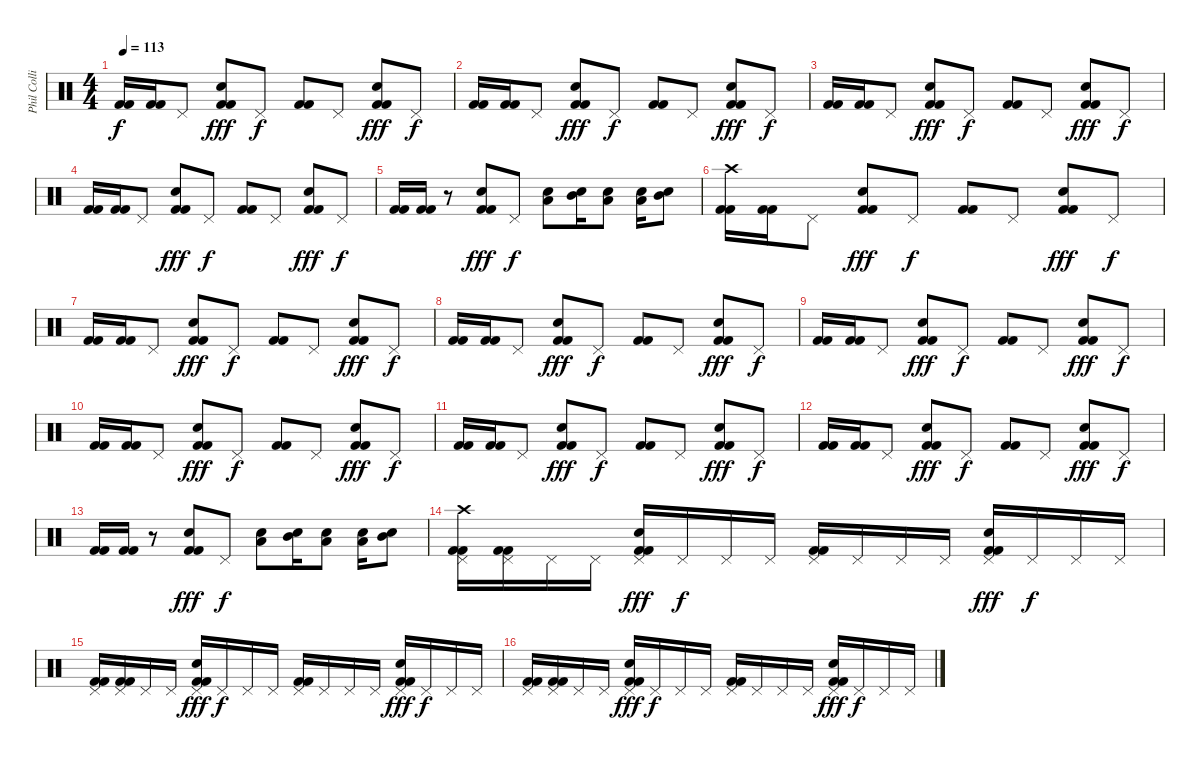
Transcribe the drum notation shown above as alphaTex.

\track ("Phil Collins" "Phil Colli") {instrument percussion}
\staff {score}
\articulation defaults
\ts (4 4)
\tempo 113
\clef neutral
\ks c
("Kick (hit) 2" "Kick (hit) 2").16{dy f} ("Kick (hit) 2" "Kick (hit) 2").16 "Pedal Hi-Hat (hit)".8 ("Electric Snare (hit)" "Kick (hit) 2" "Kick (hit) 2").8{dy fff} "Pedal Hi-Hat (hit)".8{dy f} ("Kick (hit) 2" "Kick (hit) 2").8 "Pedal Hi-Hat (hit)".8 ("Electric Snare (hit)" "Kick (hit) 2" "Kick (hit) 2").8{dy fff} "Pedal Hi-Hat (hit)".8{dy f} |
("Kick (hit) 2" "Kick (hit) 2").16 ("Kick (hit) 2" "Kick (hit) 2").16 "Pedal Hi-Hat (hit)".8 ("Electric Snare (hit)" "Kick (hit) 2" "Kick (hit) 2").8{dy fff} "Pedal Hi-Hat (hit)".8{dy f} ("Kick (hit) 2" "Kick (hit) 2").8 "Pedal Hi-Hat (hit)".8 ("Electric Snare (hit)" "Kick (hit) 2" "Kick (hit) 2").8{dy fff} "Pedal Hi-Hat (hit)".8{dy f} |
("Kick (hit) 2" "Kick (hit) 2").16 ("Kick (hit) 2" "Kick (hit) 2").16 "Pedal Hi-Hat (hit)".8 ("Electric Snare (hit)" "Kick (hit) 2" "Kick (hit) 2").8{dy fff} "Pedal Hi-Hat (hit)".8{dy f} ("Kick (hit) 2" "Kick (hit) 2").8 "Pedal Hi-Hat (hit)".8 ("Electric Snare (hit)" "Kick (hit) 2" "Kick (hit) 2").8{dy fff} "Pedal Hi-Hat (hit)".8{dy f} |
("Kick (hit) 2" "Kick (hit) 2").16 ("Kick (hit) 2" "Kick (hit) 2").16 "Pedal Hi-Hat (hit)".8 ("Electric Snare (hit)" "Kick (hit) 2" "Kick (hit) 2").8{dy fff} "Pedal Hi-Hat (hit)".8{dy f} ("Kick (hit) 2" "Kick (hit) 2").8 "Pedal Hi-Hat (hit)".8 ("Electric Snare (hit)" "Kick (hit) 2" "Kick (hit) 2").8{dy fff} "Pedal Hi-Hat (hit)".8{dy f} |
("Kick (hit) 2" "Kick (hit) 2").16 ("Kick (hit) 2" "Kick (hit) 2").16 r.8 ("Electric Snare (hit)" "Kick (hit) 2" "Kick (hit) 2").8{dy fff} "Pedal Hi-Hat (hit)".8{dy f} ("Electric Snare (hit)" "Low Tom (hit)").8 ("Electric Snare (hit)" "Mid Tom (hit)").16 ("Electric Snare (hit)" "Low Tom (hit)").8 ("Electric Snare (hit)" "Low Tom (hit)").16 ("Electric Snare (hit)" "Mid Tom (hit)").8 |
("Crash high (hit)" "Kick (hit) 2" "Kick (hit) 2").16 ("Kick (hit) 2" "Kick (hit) 2").16 "Pedal Hi-Hat (hit)".8 ("Electric Snare (hit)" "Kick (hit) 2" "Kick (hit) 2").8{dy fff} "Pedal Hi-Hat (hit)".8{dy f} ("Kick (hit) 2" "Kick (hit) 2").8 "Pedal Hi-Hat (hit)".8 ("Electric Snare (hit)" "Kick (hit) 2" "Kick (hit) 2").8{dy fff} "Pedal Hi-Hat (hit)".8{dy f} |
("Kick (hit) 2" "Kick (hit) 2").16 ("Kick (hit) 2" "Kick (hit) 2").16 "Pedal Hi-Hat (hit)".8 ("Electric Snare (hit)" "Kick (hit) 2" "Kick (hit) 2").8{dy fff} "Pedal Hi-Hat (hit)".8{dy f} ("Kick (hit) 2" "Kick (hit) 2").8 "Pedal Hi-Hat (hit)".8 ("Electric Snare (hit)" "Kick (hit) 2" "Kick (hit) 2").8{dy fff} "Pedal Hi-Hat (hit)".8{dy f} |
("Kick (hit) 2" "Kick (hit) 2").16 ("Kick (hit) 2" "Kick (hit) 2").16 "Pedal Hi-Hat (hit)".8 ("Electric Snare (hit)" "Kick (hit) 2" "Kick (hit) 2").8{dy fff} "Pedal Hi-Hat (hit)".8{dy f} ("Kick (hit) 2" "Kick (hit) 2").8 "Pedal Hi-Hat (hit)".8 ("Electric Snare (hit)" "Kick (hit) 2" "Kick (hit) 2").8{dy fff} "Pedal Hi-Hat (hit)".8{dy f} |
("Kick (hit) 2" "Kick (hit) 2").16 ("Kick (hit) 2" "Kick (hit) 2").16 "Pedal Hi-Hat (hit)".8 ("Electric Snare (hit)" "Kick (hit) 2" "Kick (hit) 2").8{dy fff} "Pedal Hi-Hat (hit)".8{dy f} ("Kick (hit) 2" "Kick (hit) 2").8 "Pedal Hi-Hat (hit)".8 ("Electric Snare (hit)" "Kick (hit) 2" "Kick (hit) 2").8{dy fff} "Pedal Hi-Hat (hit)".8{dy f} |
("Kick (hit) 2" "Kick (hit) 2").16 ("Kick (hit) 2" "Kick (hit) 2").16 "Pedal Hi-Hat (hit)".8 ("Electric Snare (hit)" "Kick (hit) 2" "Kick (hit) 2").8{dy fff} "Pedal Hi-Hat (hit)".8{dy f} ("Kick (hit) 2" "Kick (hit) 2").8 "Pedal Hi-Hat (hit)".8 ("Electric Snare (hit)" "Kick (hit) 2" "Kick (hit) 2").8{dy fff} "Pedal Hi-Hat (hit)".8{dy f} |
("Kick (hit) 2" "Kick (hit) 2").16 ("Kick (hit) 2" "Kick (hit) 2").16 "Pedal Hi-Hat (hit)".8 ("Electric Snare (hit)" "Kick (hit) 2" "Kick (hit) 2").8{dy fff} "Pedal Hi-Hat (hit)".8{dy f} ("Kick (hit) 2" "Kick (hit) 2").8 "Pedal Hi-Hat (hit)".8 ("Electric Snare (hit)" "Kick (hit) 2" "Kick (hit) 2").8{dy fff} "Pedal Hi-Hat (hit)".8{dy f} |
("Kick (hit) 2" "Kick (hit) 2").16 ("Kick (hit) 2" "Kick (hit) 2").16 "Pedal Hi-Hat (hit)".8 ("Electric Snare (hit)" "Kick (hit) 2" "Kick (hit) 2").8{dy fff} "Pedal Hi-Hat (hit)".8{dy f} ("Kick (hit) 2" "Kick (hit) 2").8 "Pedal Hi-Hat (hit)".8 ("Electric Snare (hit)" "Kick (hit) 2" "Kick (hit) 2").8{dy fff} "Pedal Hi-Hat (hit)".8{dy f} |
("Kick (hit) 2" "Kick (hit) 2").16 ("Kick (hit) 2" "Kick (hit) 2").16 r.8 ("Electric Snare (hit)" "Kick (hit) 2" "Kick (hit) 2").8{dy fff} "Pedal Hi-Hat (hit)".8{dy f} ("Electric Snare (hit)" "Low Tom (hit)").8 ("Electric Snare (hit)" "Mid Tom (hit)").16 ("Electric Snare (hit)" "Low Tom (hit)").8 ("Electric Snare (hit)" "Low Tom (hit)").16 ("Electric Snare (hit)" "Mid Tom (hit)").8 |
("Pedal Hi-Hat (hit)" "Crash high (hit)" "Kick (hit) 2" "Kick (hit) 2").16 ("Pedal Hi-Hat (hit)" "Kick (hit) 2" "Kick (hit) 2").16 "Pedal Hi-Hat (hit)".16 "Pedal Hi-Hat (hit)".16 ("Pedal Hi-Hat (hit)" "Electric Snare (hit)" "Kick (hit) 2" "Kick (hit) 2").16{dy fff} "Pedal Hi-Hat (hit)".16{dy f} "Pedal Hi-Hat (hit)".16 "Pedal Hi-Hat (hit)".16 ("Pedal Hi-Hat (hit)" "Kick (hit) 2" "Kick (hit) 2").16 "Pedal Hi-Hat (hit)".16 "Pedal Hi-Hat (hit)".16 "Pedal Hi-Hat (hit)".16 ("Pedal Hi-Hat (hit)" "Electric Snare (hit)" "Kick (hit) 2" "Kick (hit) 2").16{dy fff} "Pedal Hi-Hat (hit)".16{dy f} "Pedal Hi-Hat (hit)".16 "Pedal Hi-Hat (hit)".16 |
("Pedal Hi-Hat (hit)" "Kick (hit) 2" "Kick (hit) 2").16 ("Pedal Hi-Hat (hit)" "Kick (hit) 2" "Kick (hit) 2").16 "Pedal Hi-Hat (hit)".16 "Pedal Hi-Hat (hit)".16 ("Pedal Hi-Hat (hit)" "Electric Snare (hit)" "Kick (hit) 2" "Kick (hit) 2").16{dy fff} "Pedal Hi-Hat (hit)".16{dy f} "Pedal Hi-Hat (hit)".16 "Pedal Hi-Hat (hit)".16 ("Pedal Hi-Hat (hit)" "Kick (hit) 2" "Kick (hit) 2").16 "Pedal Hi-Hat (hit)".16 "Pedal Hi-Hat (hit)".16 "Pedal Hi-Hat (hit)".16 ("Pedal Hi-Hat (hit)" "Electric Snare (hit)" "Kick (hit) 2" "Kick (hit) 2").16{dy fff} "Pedal Hi-Hat (hit)".16{dy f} "Pedal Hi-Hat (hit)".16 "Pedal Hi-Hat (hit)".16 |
("Pedal Hi-Hat (hit)" "Kick (hit) 2" "Kick (hit) 2").16 ("Pedal Hi-Hat (hit)" "Kick (hit) 2" "Kick (hit) 2").16 "Pedal Hi-Hat (hit)".16 "Pedal Hi-Hat (hit)".16 ("Pedal Hi-Hat (hit)" "Electric Snare (hit)" "Kick (hit) 2" "Kick (hit) 2").16{dy fff} "Pedal Hi-Hat (hit)".16{dy f} "Pedal Hi-Hat (hit)".16 "Pedal Hi-Hat (hit)".16 ("Pedal Hi-Hat (hit)" "Kick (hit) 2" "Kick (hit) 2").16 "Pedal Hi-Hat (hit)".16 "Pedal Hi-Hat (hit)".16 "Pedal Hi-Hat (hit)".16 ("Pedal Hi-Hat (hit)" "Electric Snare (hit)" "Kick (hit) 2" "Kick (hit) 2").16{dy fff} "Pedal Hi-Hat (hit)".16{dy f} "Pedal Hi-Hat (hit)".16 "Pedal Hi-Hat (hit)".16
